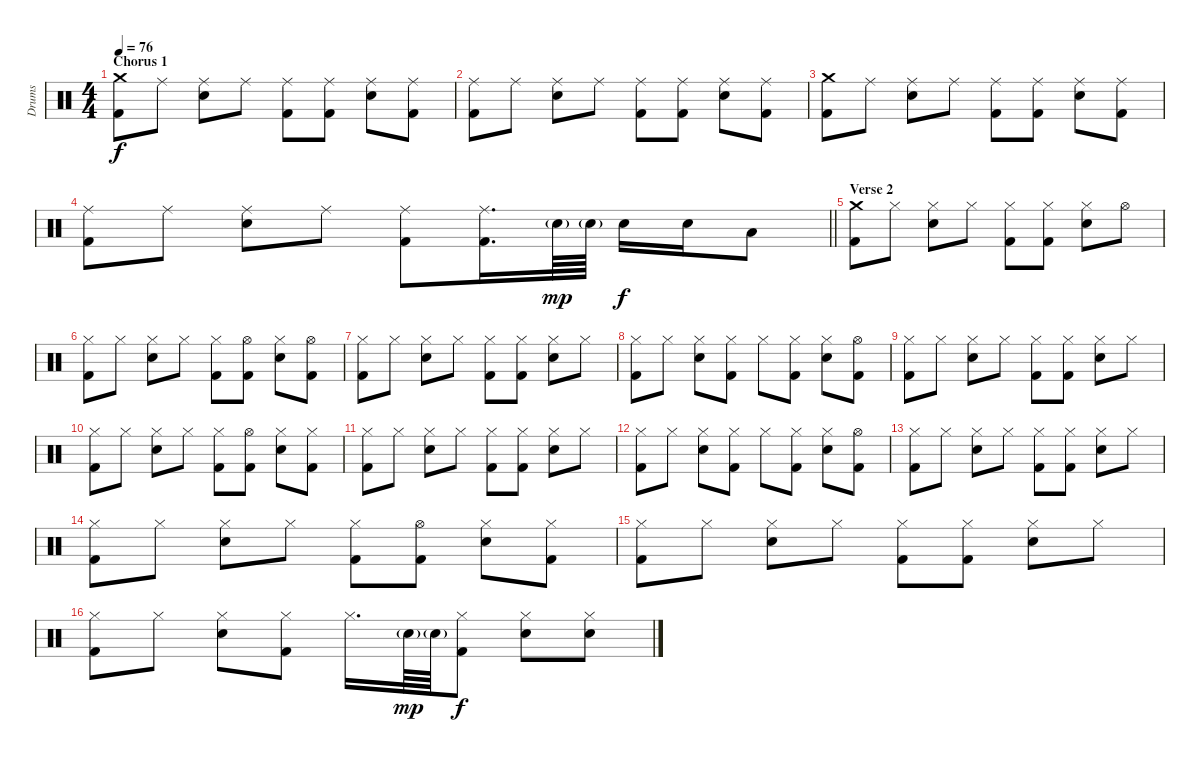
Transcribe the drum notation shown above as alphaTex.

\track ("Drums" "Drums") {instrument percussion}
\staff {score}
\articulation defaults
\ts (4 4)
\section ("" "Chorus 1")
\tempo 76
\clef neutral
\ks aminor
("Crash medium (hit)" "Kick (hit) 2").8{dy f} "Ride (middle)".8 ("Ride (middle)" "Electric Snare (hit)").8 "Ride (middle)".8 ("Ride (middle)" "Kick (hit) 2").8 ("Ride (middle)" "Kick (hit) 2").8 ("Ride (middle)" "Electric Snare (hit)").8 ("Ride (middle)" "Kick (hit) 2").8 |
("Ride (middle)" "Kick (hit) 2").8 "Ride (middle)".8 ("Ride (middle)" "Electric Snare (hit)").8 "Ride (middle)".8 ("Ride (middle)" "Kick (hit) 2").8 ("Ride (middle)" "Kick (hit) 2").8 ("Ride (middle)" "Electric Snare (hit)").8 ("Ride (middle)" "Kick (hit) 2").8 |
("Crash medium (hit)" "Kick (hit) 2").8 "Ride (middle)".8 ("Ride (middle)" "Electric Snare (hit)").8 "Ride (middle)".8 ("Ride (middle)" "Kick (hit) 2").8 ("Ride (middle)" "Kick (hit) 2").8 ("Ride (middle)" "Electric Snare (hit)").8 ("Ride (middle)" "Kick (hit) 2").8 |
\barLineRight lightlight
("Ride (middle)" "Kick (hit) 2").8 "Ride (middle)".8 ("Ride (middle)" "Electric Snare (hit)").8 "Ride (middle)".8 ("Ride (middle)" "Kick (hit) 2").8 ("Ride (middle)" "Kick (hit) 2").16{d} "Electric Snare (hit)"{g}.64{dy mp} "Electric Snare (hit)"{g}.64 "Electric Snare (hit)".16{dy f} "Electric Snare (hit)".16 "Low Tom (hit)".8 |
\section ("" "Verse 2")
("Crash medium (hit)" "Kick (hit) 2").8 "Hi-Hat (closed)".8 ("Hi-Hat (closed)" "Electric Snare (hit)").8 "Hi-Hat (closed)".8 ("Hi-Hat (closed)" "Kick (hit) 2").8 ("Hi-Hat (closed)" "Kick (hit) 2").8 ("Hi-Hat (closed)" "Electric Snare (hit)").8 "Hi-Hat (open)".8 |
("Hi-Hat (closed)" "Kick (hit) 2").8 "Hi-Hat (closed)".8 ("Hi-Hat (closed)" "Electric Snare (hit)").8 "Hi-Hat (closed)".8 ("Hi-Hat (closed)" "Kick (hit) 2").8 ("Hi-Hat (open)" "Kick (hit) 2").8 ("Hi-Hat (closed)" "Electric Snare (hit)").8 ("Hi-Hat (open)" "Kick (hit) 2").8 |
("Hi-Hat (closed)" "Kick (hit) 2").8 "Hi-Hat (closed)".8 ("Hi-Hat (closed)" "Electric Snare (hit)").8 "Hi-Hat (closed)".8 ("Hi-Hat (closed)" "Kick (hit) 2").8 ("Hi-Hat (closed)" "Kick (hit) 2").8 ("Hi-Hat (closed)" "Electric Snare (hit)").8 "Hi-Hat (closed)".8 |
("Hi-Hat (closed)" "Kick (hit) 2").8 "Hi-Hat (closed)".8 ("Hi-Hat (closed)" "Electric Snare (hit)").8 ("Hi-Hat (closed)" "Kick (hit) 2").8 "Hi-Hat (closed)".8 ("Hi-Hat (closed)" "Kick (hit) 2").8 ("Hi-Hat (closed)" "Electric Snare (hit)").8 ("Hi-Hat (open)" "Kick (hit) 2").8 |
("Hi-Hat (closed)" "Kick (hit) 2").8 "Hi-Hat (closed)".8 ("Hi-Hat (closed)" "Electric Snare (hit)").8 "Hi-Hat (closed)".8 ("Hi-Hat (closed)" "Kick (hit) 2").8 ("Hi-Hat (closed)" "Kick (hit) 2").8 ("Hi-Hat (closed)" "Electric Snare (hit)").8 "Hi-Hat (closed)".8 |
("Hi-Hat (closed)" "Kick (hit) 2").8 "Hi-Hat (closed)".8 ("Hi-Hat (closed)" "Electric Snare (hit)").8 "Hi-Hat (closed)".8 ("Hi-Hat (closed)" "Kick (hit) 2").8 ("Hi-Hat (open)" "Kick (hit) 2").8 ("Hi-Hat (closed)" "Electric Snare (hit)").8 ("Hi-Hat (closed)" "Kick (hit) 2").8 |
("Hi-Hat (closed)" "Kick (hit) 2").8 "Hi-Hat (closed)".8 ("Hi-Hat (closed)" "Electric Snare (hit)").8 "Hi-Hat (closed)".8 ("Hi-Hat (closed)" "Kick (hit) 2").8 ("Hi-Hat (closed)" "Kick (hit) 2").8 ("Hi-Hat (closed)" "Electric Snare (hit)").8 "Hi-Hat (closed)".8 |
("Hi-Hat (closed)" "Kick (hit) 2").8 "Hi-Hat (closed)".8 ("Hi-Hat (closed)" "Electric Snare (hit)").8 ("Hi-Hat (closed)" "Kick (hit) 2").8 "Hi-Hat (closed)".8 ("Hi-Hat (closed)" "Kick (hit) 2").8 ("Hi-Hat (closed)" "Electric Snare (hit)").8 ("Hi-Hat (open)" "Kick (hit) 2").8 |
("Hi-Hat (closed)" "Kick (hit) 2").8 "Hi-Hat (closed)".8 ("Hi-Hat (closed)" "Electric Snare (hit)").8 "Hi-Hat (closed)".8 ("Hi-Hat (closed)" "Kick (hit) 2").8 ("Hi-Hat (closed)" "Kick (hit) 2").8 ("Hi-Hat (closed)" "Electric Snare (hit)").8 "Hi-Hat (closed)".8 |
("Hi-Hat (closed)" "Kick (hit) 2").8 "Hi-Hat (closed)".8 ("Hi-Hat (closed)" "Electric Snare (hit)").8 "Hi-Hat (closed)".8 ("Hi-Hat (closed)" "Kick (hit) 2").8 ("Hi-Hat (open)" "Kick (hit) 2").8 ("Hi-Hat (closed)" "Electric Snare (hit)").8 ("Hi-Hat (closed)" "Kick (hit) 2").8 |
("Hi-Hat (closed)" "Kick (hit) 2").8 "Hi-Hat (closed)".8 ("Hi-Hat (closed)" "Electric Snare (hit)").8 "Hi-Hat (closed)".8 ("Hi-Hat (closed)" "Kick (hit) 2").8 ("Hi-Hat (closed)" "Kick (hit) 2").8 ("Hi-Hat (closed)" "Electric Snare (hit)").8 "Hi-Hat (closed)".8 |
("Hi-Hat (closed)" "Kick (hit) 2").8 "Hi-Hat (closed)".8 ("Hi-Hat (closed)" "Electric Snare (hit)").8 ("Hi-Hat (closed)" "Kick (hit) 2").8 "Hi-Hat (closed)".16{d} "Electric Snare (hit)"{g}.64{dy mp} "Electric Snare (hit)"{g}.64 ("Hi-Hat (closed)" "Kick (hit) 2").8{dy f} ("Hi-Hat (closed)" "Electric Snare (hit)").8 ("Hi-Hat (closed)" "Electric Snare (hit)").8
